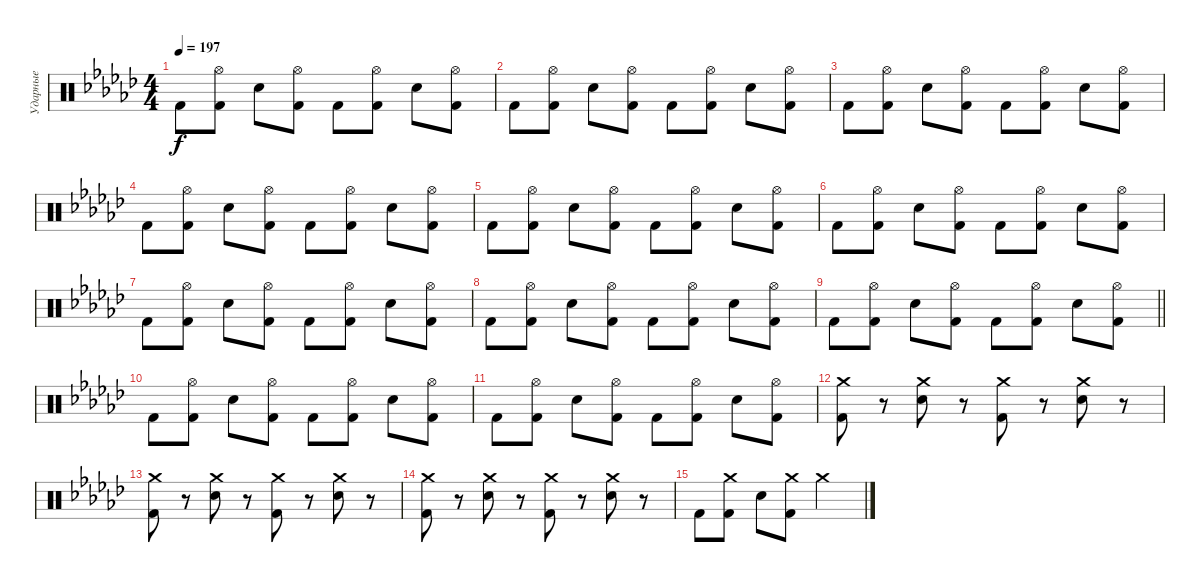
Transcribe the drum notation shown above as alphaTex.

\track ("Ударные" "Ударные") {instrument percussion}
\staff {score}
\articulation defaults
\ts (4 4)
\tempo 197
\clef neutral
\ks gb "Kick (hit) 2".8{dy f}
("Hi-Hat (open)" "Kick (hit) 2").8 "Snare (hit) 2".8 ("Hi-Hat (open)" "Kick (hit) 2").8 "Kick (hit) 2".8 ("Hi-Hat (open)" "Kick (hit) 2").8 "Snare (hit) 2".8 ("Hi-Hat (open)" "Kick (hit) 2").8 |
"Kick (hit) 2".8 ("Hi-Hat (open)" "Kick (hit) 2").8 "Snare (hit) 2".8 ("Hi-Hat (open)" "Kick (hit) 2").8 "Kick (hit) 2".8 ("Hi-Hat (open)" "Kick (hit) 2").8 "Snare (hit) 2".8 ("Hi-Hat (open)" "Kick (hit) 2").8 |
"Kick (hit) 2".8 ("Hi-Hat (open)" "Kick (hit) 2").8 "Snare (hit) 2".8 ("Hi-Hat (open)" "Kick (hit) 2").8 "Kick (hit) 2".8 ("Hi-Hat (open)" "Kick (hit) 2").8 "Snare (hit) 2".8 ("Hi-Hat (open)" "Kick (hit) 2").8 |
"Kick (hit) 2".8 ("Hi-Hat (open)" "Kick (hit) 2").8 "Snare (hit) 2".8 ("Hi-Hat (open)" "Kick (hit) 2").8 "Kick (hit) 2".8 ("Hi-Hat (open)" "Kick (hit) 2").8 "Snare (hit) 2".8 ("Hi-Hat (open)" "Kick (hit) 2").8 |
"Kick (hit) 2".8 ("Hi-Hat (open)" "Kick (hit) 2").8 "Snare (hit) 2".8 ("Hi-Hat (open)" "Kick (hit) 2").8 "Kick (hit) 2".8 ("Hi-Hat (open)" "Kick (hit) 2").8 "Snare (hit) 2".8 ("Hi-Hat (open)" "Kick (hit) 2").8 |
"Kick (hit) 2".8 ("Hi-Hat (open)" "Kick (hit) 2").8 "Snare (hit) 2".8 ("Hi-Hat (open)" "Kick (hit) 2").8 "Kick (hit) 2".8 ("Hi-Hat (open)" "Kick (hit) 2").8 "Snare (hit) 2".8 ("Hi-Hat (open)" "Kick (hit) 2").8 |
"Kick (hit) 2".8 ("Hi-Hat (open)" "Kick (hit) 2").8 "Snare (hit) 2".8 ("Hi-Hat (open)" "Kick (hit) 2").8 "Kick (hit) 2".8 ("Hi-Hat (open)" "Kick (hit) 2").8 "Snare (hit) 2".8 ("Hi-Hat (open)" "Kick (hit) 2").8 |
"Kick (hit) 2".8 ("Hi-Hat (open)" "Kick (hit) 2").8 "Snare (hit) 2".8 ("Hi-Hat (open)" "Kick (hit) 2").8 "Kick (hit) 2".8 ("Hi-Hat (open)" "Kick (hit) 2").8 "Snare (hit) 2".8 ("Hi-Hat (open)" "Kick (hit) 2").8 |
\barLineRight lightlight "Kick (hit) 2".8
("Hi-Hat (open)" "Kick (hit) 2").8 "Snare (hit) 2".8 ("Hi-Hat (open)" "Kick (hit) 2").8 "Kick (hit) 2".8 ("Hi-Hat (open)" "Kick (hit) 2").8 "Snare (hit) 2".8 ("Hi-Hat (open)" "Kick (hit) 2").8 |
"Kick (hit) 2".8 ("Hi-Hat (open)" "Kick (hit) 2").8 "Snare (hit) 2".8 ("Hi-Hat (open)" "Kick (hit) 2").8 "Kick (hit) 2".8 ("Hi-Hat (open)" "Kick (hit) 2").8 "Snare (hit) 2".8 ("Hi-Hat (open)" "Kick (hit) 2").8 |
"Kick (hit) 2".8 ("Hi-Hat (open)" "Kick (hit) 2").8 "Snare (hit) 2".8 ("Hi-Hat (open)" "Kick (hit) 2").8 "Kick (hit) 2".8 ("Hi-Hat (open)" "Kick (hit) 2").8 "Snare (hit) 2".8 ("Hi-Hat (open)" "Kick (hit) 2").8 |
("Crash medium (hit)" "Kick (hit) 2").8 r.8 ("Crash medium (hit)" "Snare (hit) 2").8 r.8 ("Crash medium (hit)" "Kick (hit) 2").8 r.8 ("Crash medium (hit)" "Snare (hit) 2").8 r.8 |
("Crash medium (hit)" "Kick (hit) 2").8 r.8 ("Crash medium (hit)" "Snare (hit) 2").8 r.8 ("Crash medium (hit)" "Kick (hit) 2").8 r.8 ("Crash medium (hit)" "Snare (hit) 2").8 r.8 |
("Crash medium (hit)" "Kick (hit) 2").8 r.8 ("Crash medium (hit)" "Snare (hit) 2").8 r.8 ("Crash medium (hit)" "Kick (hit) 2").8 r.8 ("Crash medium (hit)" "Snare (hit) 2").8 r.8 |
"Kick (hit) 2".8 ("Crash medium (hit)" "Kick (hit) 2").8 "Snare (hit) 2".8 ("Crash medium (hit)" "Kick (hit) 2").8 "Crash medium (hit)".2
